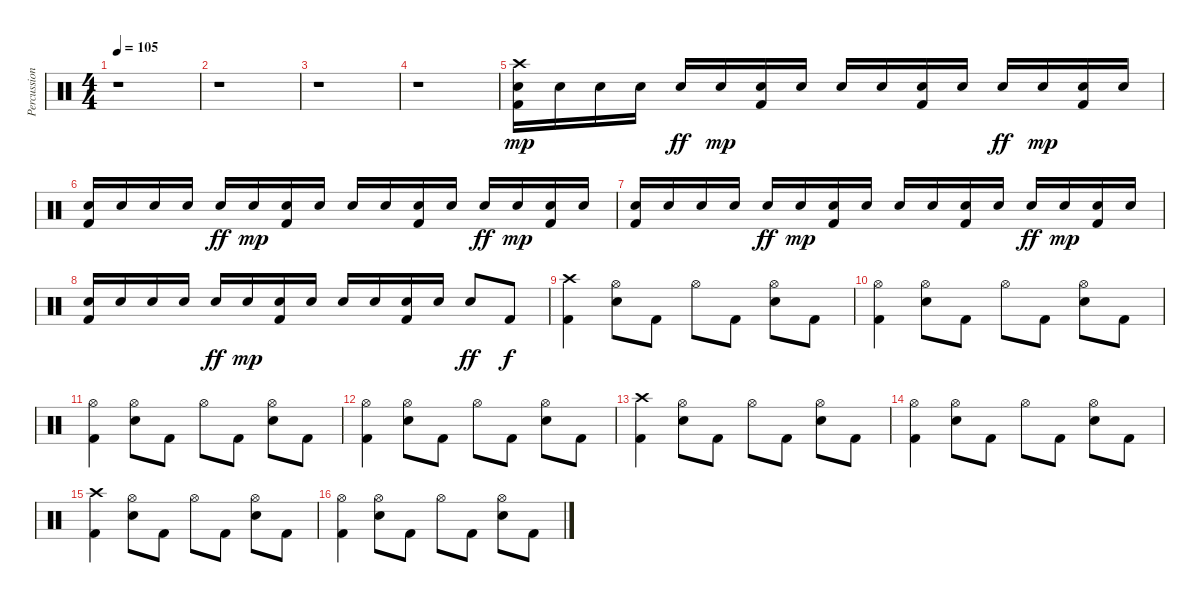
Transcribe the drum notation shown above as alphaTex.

\track ("Percussion" "Percussion") {instrument percussion}
\staff {score}
\articulation defaults
\ts (4 4)
\tempo 105
\clef neutral
\ks c
r.1{dy mp} |
r.1 |
r.1 |
r.1 |
("Crash high (hit)" "Snare (hit) 2" "Kick (hit) 2").16 "Snare (hit) 2".16 "Snare (hit) 2".16 "Snare (hit) 2".16 "Snare (hit) 2".16{dy ff} "Snare (hit) 2".16{dy mp} ("Snare (hit) 2" "Kick (hit) 2").16 "Snare (hit) 2".16 "Snare (hit) 2".16 "Snare (hit) 2".16 ("Snare (hit) 2" "Kick (hit) 2").16 "Snare (hit) 2".16 "Snare (hit) 2".16{dy ff} "Snare (hit) 2".16{dy mp} ("Snare (hit) 2" "Kick (hit) 2").16 "Snare (hit) 2".16 |
("Snare (hit) 2" "Kick (hit) 2").16 "Snare (hit) 2".16 "Snare (hit) 2".16 "Snare (hit) 2".16 "Snare (hit) 2".16{dy ff} "Snare (hit) 2".16{dy mp} ("Snare (hit) 2" "Kick (hit) 2").16 "Snare (hit) 2".16 "Snare (hit) 2".16 "Snare (hit) 2".16 ("Snare (hit) 2" "Kick (hit) 2").16 "Snare (hit) 2".16 "Snare (hit) 2".16{dy ff} "Snare (hit) 2".16{dy mp} ("Snare (hit) 2" "Kick (hit) 2").16 "Snare (hit) 2".16 |
("Snare (hit) 2" "Kick (hit) 2").16 "Snare (hit) 2".16 "Snare (hit) 2".16 "Snare (hit) 2".16 "Snare (hit) 2".16{dy ff} "Snare (hit) 2".16{dy mp} ("Snare (hit) 2" "Kick (hit) 2").16 "Snare (hit) 2".16 "Snare (hit) 2".16 "Snare (hit) 2".16 ("Snare (hit) 2" "Kick (hit) 2").16 "Snare (hit) 2".16 "Snare (hit) 2".16{dy ff} "Snare (hit) 2".16{dy mp} ("Snare (hit) 2" "Kick (hit) 2").16 "Snare (hit) 2".16 |
("Snare (hit) 2" "Kick (hit) 2").16 "Snare (hit) 2".16 "Snare (hit) 2".16 "Snare (hit) 2".16 "Snare (hit) 2".16{dy ff} "Snare (hit) 2".16{dy mp} ("Snare (hit) 2" "Kick (hit) 2").16 "Snare (hit) 2".16 "Snare (hit) 2".16 "Snare (hit) 2".16 ("Snare (hit) 2" "Kick (hit) 2").16 "Snare (hit) 2".16 "Snare (hit) 2".8{dy ff} "Kick (hit) 2".8{dy f} |
("Crash high (hit)" "Kick (hit) 2").4 ("Hi-Hat (open)" "Snare (hit) 2").8 "Kick (hit) 2".8 "Hi-Hat (open)".8 "Kick (hit) 2".8 ("Hi-Hat (open)" "Snare (hit) 2").8 "Kick (hit) 2".8 |
("Hi-Hat (open)" "Kick (hit) 2").4 ("Hi-Hat (open)" "Snare (hit) 2").8 "Kick (hit) 2".8 "Hi-Hat (open)".8 "Kick (hit) 2".8 ("Hi-Hat (open)" "Snare (hit) 2").8 "Kick (hit) 2".8 |
("Hi-Hat (open)" "Kick (hit) 2").4 ("Hi-Hat (open)" "Snare (hit) 2").8 "Kick (hit) 2".8 "Hi-Hat (open)".8 "Kick (hit) 2".8 ("Hi-Hat (open)" "Snare (hit) 2").8 "Kick (hit) 2".8 |
("Hi-Hat (open)" "Kick (hit) 2").4 ("Hi-Hat (open)" "Snare (hit) 2").8 "Kick (hit) 2".8 "Hi-Hat (open)".8 "Kick (hit) 2".8 ("Hi-Hat (open)" "Snare (hit) 2").8 "Kick (hit) 2".8 |
("Crash high (hit)" "Kick (hit) 2").4 ("Hi-Hat (open)" "Snare (hit) 2").8 "Kick (hit) 2".8 "Hi-Hat (open)".8 "Kick (hit) 2".8 ("Hi-Hat (open)" "Snare (hit) 2").8 "Kick (hit) 2".8 |
("Hi-Hat (open)" "Kick (hit) 2").4 ("Hi-Hat (open)" "Snare (hit) 2").8 "Kick (hit) 2".8 "Hi-Hat (open)".8 "Kick (hit) 2".8 ("Hi-Hat (open)" "Snare (hit) 2").8 "Kick (hit) 2".8 |
("Crash high (hit)" "Kick (hit) 2").4 ("Hi-Hat (open)" "Snare (hit) 2").8 "Kick (hit) 2".8 "Hi-Hat (open)".8 "Kick (hit) 2".8 ("Hi-Hat (open)" "Snare (hit) 2").8 "Kick (hit) 2".8 |
("Hi-Hat (open)" "Kick (hit) 2").4 ("Hi-Hat (open)" "Snare (hit) 2").8 "Kick (hit) 2".8 "Hi-Hat (open)".8 "Kick (hit) 2".8 ("Hi-Hat (open)" "Snare (hit) 2").8 "Kick (hit) 2".8
